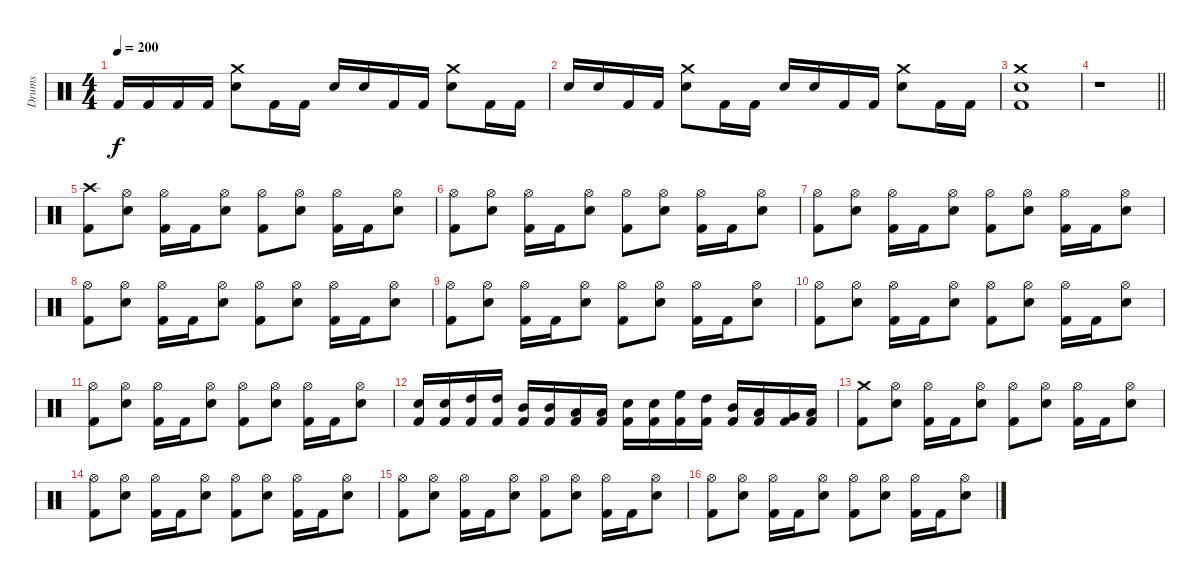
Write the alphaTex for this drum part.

\track ("Drums" "Drums") {instrument percussion}
\staff {score}
\articulation defaults
\ts (4 4)
\tempo 200
\clef neutral
\ks c "Kick (hit) 2".16{dy f} "Kick (hit) 2".16 "Kick (hit) 2".16 "Kick (hit) 2".16
("Snare (hit) 2" "Crash medium (hit)").8 "Kick (hit) 2".16 "Kick (hit) 2".16 "Snare (hit) 2".16 "Snare (hit) 2".16 "Kick (hit) 2".16 "Kick (hit) 2".16 ("Snare (hit) 2" "Crash medium (hit)").8 "Kick (hit) 2".16 "Kick (hit) 2".16 |
"Snare (hit) 2".16 "Snare (hit) 2".16 "Kick (hit) 2".16 "Kick (hit) 2".16 ("Snare (hit) 2" "Crash medium (hit)").8 "Kick (hit) 2".16 "Kick (hit) 2".16 "Snare (hit) 2".16 "Snare (hit) 2".16 "Kick (hit) 2".16 "Kick (hit) 2".16 ("Snare (hit) 2" "Crash medium (hit)").8 "Kick (hit) 2".16 "Kick (hit) 2".16 |
("Kick (hit) 2" "Snare (hit) 2" "Crash medium (hit)").1 |
\barLineRight lightlight
r.1 |
\section ("" "")
("Kick (hit) 2" "Crash high (hit)").8 ("Snare (hit) 2" "Hi-Hat (open)").8 ("Kick (hit) 2" "Hi-Hat (open)").16 "Kick (hit) 2".16 ("Snare (hit) 2" "Hi-Hat (open)").8 ("Kick (hit) 2" "Hi-Hat (open)").8 ("Snare (hit) 2" "Hi-Hat (open)").8 ("Kick (hit) 2" "Hi-Hat (open)").16 "Kick (hit) 2".16 ("Snare (hit) 2" "Hi-Hat (open)").8 |
("Kick (hit) 2" "Hi-Hat (open)").8 ("Snare (hit) 2" "Hi-Hat (open)").8 ("Kick (hit) 2" "Hi-Hat (open)").16 "Kick (hit) 2".16 ("Snare (hit) 2" "Hi-Hat (open)").8 ("Kick (hit) 2" "Hi-Hat (open)").8 ("Snare (hit) 2" "Hi-Hat (open)").8 ("Kick (hit) 2" "Hi-Hat (open)").16 "Kick (hit) 2".16 ("Snare (hit) 2" "Hi-Hat (open)").8 |
("Kick (hit) 2" "Hi-Hat (open)").8 ("Snare (hit) 2" "Hi-Hat (open)").8 ("Kick (hit) 2" "Hi-Hat (open)").16 "Kick (hit) 2".16 ("Snare (hit) 2" "Hi-Hat (open)").8 ("Kick (hit) 2" "Hi-Hat (open)").8 ("Snare (hit) 2" "Hi-Hat (open)").8 ("Kick (hit) 2" "Hi-Hat (open)").16 "Kick (hit) 2".16 ("Snare (hit) 2" "Hi-Hat (open)").8 |
("Kick (hit) 2" "Hi-Hat (open)").8 ("Snare (hit) 2" "Hi-Hat (open)").8 ("Kick (hit) 2" "Hi-Hat (open)").16 "Kick (hit) 2".16 ("Snare (hit) 2" "Hi-Hat (open)").8 ("Kick (hit) 2" "Hi-Hat (open)").8 ("Snare (hit) 2" "Hi-Hat (open)").8 ("Kick (hit) 2" "Hi-Hat (open)").16 "Kick (hit) 2".16 ("Snare (hit) 2" "Hi-Hat (open)").8 |
("Kick (hit) 2" "Hi-Hat (open)").8 ("Snare (hit) 2" "Hi-Hat (open)").8 ("Kick (hit) 2" "Hi-Hat (open)").16 "Kick (hit) 2".16 ("Snare (hit) 2" "Hi-Hat (open)").8 ("Kick (hit) 2" "Hi-Hat (open)").8 ("Snare (hit) 2" "Hi-Hat (open)").8 ("Kick (hit) 2" "Hi-Hat (open)").16 "Kick (hit) 2".16 ("Snare (hit) 2" "Hi-Hat (open)").8 |
("Kick (hit) 2" "Hi-Hat (open)").8 ("Snare (hit) 2" "Hi-Hat (open)").8 ("Kick (hit) 2" "Hi-Hat (open)").16 "Kick (hit) 2".16 ("Snare (hit) 2" "Hi-Hat (open)").8 ("Kick (hit) 2" "Hi-Hat (open)").8 ("Snare (hit) 2" "Hi-Hat (open)").8 ("Kick (hit) 2" "Hi-Hat (open)").16 "Kick (hit) 2".16 ("Snare (hit) 2" "Hi-Hat (open)").8 |
("Kick (hit) 2" "Hi-Hat (open)").8 ("Snare (hit) 2" "Hi-Hat (open)").8 ("Kick (hit) 2" "Hi-Hat (open)").16 "Kick (hit) 2".16 ("Snare (hit) 2" "Hi-Hat (open)").8 ("Kick (hit) 2" "Hi-Hat (open)").8 ("Snare (hit) 2" "Hi-Hat (open)").8 ("Kick (hit) 2" "Hi-Hat (open)").16 "Kick (hit) 2".16 ("Snare (hit) 2" "Hi-Hat (open)").8 |
("Kick (hit) 2" "Snare (hit) 2").16 ("Kick (hit) 2" "Snare (hit) 2").16 ("Kick (hit) 2" "High Tom (hit)").16 ("Kick (hit) 2" "High Tom (hit)").16 ("Kick (hit) 2" "Mid Tom (hit)").16 ("Kick (hit) 2" "Mid Tom (hit)").16 ("Kick (hit) 2" "Low Tom (hit)").16 ("Kick (hit) 2" "Low Tom (hit)").16 ("Kick (hit) 2" "Snare (hit) 2").16 ("Kick (hit) 2" "Snare (hit) 2").16 ("Kick (hit) 2" "High Floor Tom (hit)").16 ("Kick (hit) 2" "High Tom (hit)").16 ("Kick (hit) 2" "Mid Tom (hit)").16 ("Kick (hit) 2" "Low Tom (hit)").16 ("Kick (hit) 2" "Very Low Tom (hit)").16 ("Kick (hit) 2" "Low Floor Tom (hit)").16 |
("Kick (hit) 2" "Crash medium (hit)").8 ("Snare (hit) 2" "Hi-Hat (open)").8 ("Kick (hit) 2" "Hi-Hat (open)").16 "Kick (hit) 2".16 ("Snare (hit) 2" "Hi-Hat (open)").8 ("Kick (hit) 2" "Hi-Hat (open)").8 ("Snare (hit) 2" "Hi-Hat (open)").8 ("Kick (hit) 2" "Hi-Hat (open)").16 "Kick (hit) 2".16 ("Snare (hit) 2" "Hi-Hat (open)").8 |
("Kick (hit) 2" "Hi-Hat (open)").8 ("Snare (hit) 2" "Hi-Hat (open)").8 ("Kick (hit) 2" "Hi-Hat (open)").16 "Kick (hit) 2".16 ("Snare (hit) 2" "Hi-Hat (open)").8 ("Kick (hit) 2" "Hi-Hat (open)").8 ("Snare (hit) 2" "Hi-Hat (open)").8 ("Kick (hit) 2" "Hi-Hat (open)").16 "Kick (hit) 2".16 ("Snare (hit) 2" "Hi-Hat (open)").8 |
("Kick (hit) 2" "Hi-Hat (open)").8 ("Snare (hit) 2" "Hi-Hat (open)").8 ("Kick (hit) 2" "Hi-Hat (open)").16 "Kick (hit) 2".16 ("Snare (hit) 2" "Hi-Hat (open)").8 ("Kick (hit) 2" "Hi-Hat (open)").8 ("Snare (hit) 2" "Hi-Hat (open)").8 ("Kick (hit) 2" "Hi-Hat (open)").16 "Kick (hit) 2".16 ("Snare (hit) 2" "Hi-Hat (open)").8 |
("Kick (hit) 2" "Hi-Hat (open)").8 ("Snare (hit) 2" "Hi-Hat (open)").8 ("Kick (hit) 2" "Hi-Hat (open)").16 "Kick (hit) 2".16 ("Snare (hit) 2" "Hi-Hat (open)").8 ("Kick (hit) 2" "Hi-Hat (open)").8 ("Snare (hit) 2" "Hi-Hat (open)").8 ("Kick (hit) 2" "Hi-Hat (open)").16 "Kick (hit) 2".16 ("Snare (hit) 2" "Hi-Hat (open)").8
